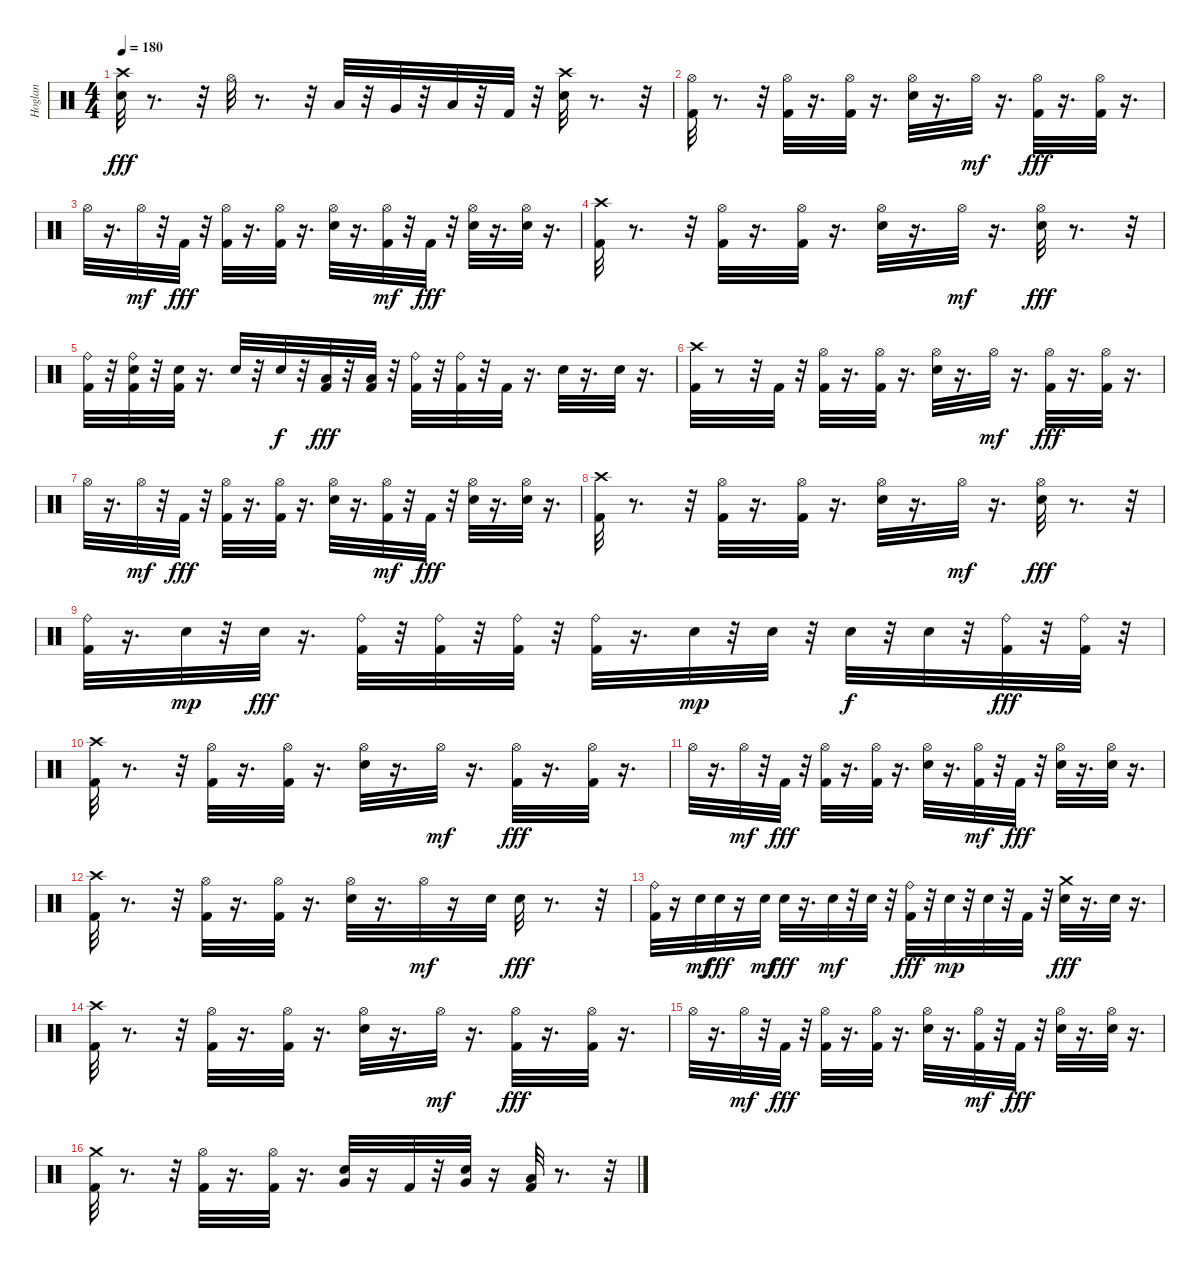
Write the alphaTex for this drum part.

\track ("Hoglan" "Hoglan") {instrument percussion}
\staff {score}
\articulation defaults
\ts (4 4)
\tempo 180
\clef neutral
\ks c
("Crash high (hit)" "Electric Snare (hit)").32{dy fff} r.8{d} r.32 "Hi-Hat (open)".32 r.8{d} r.32 "Low Tom (hit)".32 r.32 "Very Low Tom (hit)".32 r.32 "Low Floor Tom (hit)".32 r.32 "Kick (hit) 2".32 r.32 ("Crash high (hit)" "Electric Snare (hit)").32 r.8{d} r.32 |
("Hi-Hat (open)" "Kick (hit) 2").32 r.8{d} r.32 ("Hi-Hat (open)" "Kick (hit) 2").32 r.16{d} ("Hi-Hat (open)" "Kick (hit) 2").32 r.16{d} ("Hi-Hat (open)" "Electric Snare (hit)").32 r.16{d} "Hi-Hat (open)".32{dy mf} r.16{d} ("Hi-Hat (open)" "Kick (hit) 2").32{dy fff} r.16{d} ("Hi-Hat (open)" "Kick (hit) 2").32 r.16{d} |
"Hi-Hat (open)".32 r.16{d} "Hi-Hat (open)".32{dy mf} r.32 "Kick (hit) 2".32{dy fff} r.32 ("Hi-Hat (open)" "Kick (hit) 2").32 r.16{d} ("Hi-Hat (open)" "Kick (hit) 2").32 r.16{d} ("Hi-Hat (open)" "Electric Snare (hit)").32 r.16{d} ("Hi-Hat (open)" "Kick (hit) 2").32{dy mf} r.32 "Kick (hit) 2".32{dy fff} r.32 ("Hi-Hat (open)" "Electric Snare (hit)").32 r.16{d} ("Hi-Hat (open)" "Electric Snare (hit)").32 r.16{d} |
("Crash high (hit)" "Kick (hit) 2").32 r.8{d} r.32 ("Hi-Hat (open)" "Kick (hit) 2").32 r.16{d} ("Hi-Hat (open)" "Kick (hit) 2").32 r.16{d} ("Hi-Hat (open)" "Electric Snare (hit)").32 r.16{d} "Hi-Hat (open)".32{dy mf} r.16{d} ("Hi-Hat (open)" "Electric Snare (hit)").32{dy fff} r.8{d} r.32 |
("Ride (bell)" "Kick (hit) 2").32 r.32 ("Ride (bell)" "Electric Snare (hit)" "Kick (hit) 2").32 r.32 ("Electric Snare (hit)" "Kick (hit) 2").32 r.16{d} "Electric Snare (hit)".32 r.32 "Electric Snare (hit)".32{dy f} r.32 ("Low Floor Tom (hit)" "Kick (hit) 2").32{dy fff} r.32 ("Low Floor Tom (hit)" "Kick (hit) 2").32 r.32 ("Ride (bell)" "Kick (hit) 2").32 r.32 ("Ride (bell)" "Kick (hit) 2").32 r.32 "Kick (hit) 2".32 r.16{d} "Electric Snare (hit)".32 r.16{d} "Electric Snare (hit)".32 r.16{d} |
("Crash high (hit)" "Kick (hit) 2").32 r.8 r.32 "Kick (hit) 2".32 r.32 ("Hi-Hat (open)" "Kick (hit) 2").32 r.16{d} ("Hi-Hat (open)" "Kick (hit) 2").32 r.16{d} ("Hi-Hat (open)" "Electric Snare (hit)").32 r.16{d} "Hi-Hat (open)".32{dy mf} r.16{d} ("Hi-Hat (open)" "Kick (hit) 2").32{dy fff} r.16{d} ("Hi-Hat (open)" "Kick (hit) 2").32 r.16{d} |
"Hi-Hat (open)".32 r.16{d} "Hi-Hat (open)".32{dy mf} r.32 "Kick (hit) 2".32{dy fff} r.32 ("Hi-Hat (open)" "Kick (hit) 2").32 r.16{d} ("Hi-Hat (open)" "Kick (hit) 2").32 r.16{d} ("Hi-Hat (open)" "Electric Snare (hit)").32 r.16{d} ("Hi-Hat (open)" "Kick (hit) 2").32{dy mf} r.32 "Kick (hit) 2".32{dy fff} r.32 ("Hi-Hat (open)" "Electric Snare (hit)").32 r.16{d} ("Hi-Hat (open)" "Electric Snare (hit)").32 r.16{d} |
("Crash high (hit)" "Kick (hit) 2").32 r.8{d} r.32 ("Hi-Hat (open)" "Kick (hit) 2").32 r.16{d} ("Hi-Hat (open)" "Kick (hit) 2").32 r.16{d} ("Hi-Hat (open)" "Electric Snare (hit)").32 r.16{d} "Hi-Hat (open)".32{dy mf} r.16{d} ("Hi-Hat (open)" "Electric Snare (hit)").32{dy fff} r.8{d} r.32 |
("Ride (bell)" "Kick (hit) 2").32 r.16{d} "Electric Snare (hit)".32{dy mp} r.32 "Electric Snare (hit)".32{dy fff} r.16{d} ("Ride (bell)" "Kick (hit) 2").32 r.32 ("Ride (bell)" "Kick (hit) 2").32 r.32 ("Ride (bell)" "Kick (hit) 2").32 r.32 ("Ride (bell)" "Kick (hit) 2").32 r.16{d} "Electric Snare (hit)".32{dy mp} r.32 "Electric Snare (hit)".32 r.32 "Electric Snare (hit)".32{dy f} r.32 "Electric Snare (hit)".32 r.32 ("Ride (bell)" "Kick (hit) 2").32{dy fff} r.32 ("Ride (bell)" "Kick (hit) 2").32 r.32 |
("Crash high (hit)" "Kick (hit) 2").32 r.8{d} r.32 ("Hi-Hat (open)" "Kick (hit) 2").32 r.16{d} ("Hi-Hat (open)" "Kick (hit) 2").32 r.16{d} ("Hi-Hat (open)" "Electric Snare (hit)").32 r.16{d} "Hi-Hat (open)".32{dy mf} r.16{d} ("Hi-Hat (open)" "Kick (hit) 2").32{dy fff} r.16{d} ("Hi-Hat (open)" "Kick (hit) 2").32 r.16{d} |
"Hi-Hat (open)".32 r.16{d} "Hi-Hat (open)".32{dy mf} r.32 "Kick (hit) 2".32{dy fff} r.32 ("Hi-Hat (open)" "Kick (hit) 2").32 r.16{d} ("Hi-Hat (open)" "Kick (hit) 2").32 r.16{d} ("Hi-Hat (open)" "Electric Snare (hit)").32 r.16{d} ("Hi-Hat (open)" "Kick (hit) 2").32{dy mf} r.32 "Kick (hit) 2".32{dy fff} r.32 ("Hi-Hat (open)" "Electric Snare (hit)").32 r.16{d} ("Hi-Hat (open)" "Electric Snare (hit)").32 r.16{d} |
("Crash high (hit)" "Kick (hit) 2").32 r.8{d} r.32 ("Hi-Hat (open)" "Kick (hit) 2").32 r.16{d} ("Hi-Hat (open)" "Kick (hit) 2").32 r.16{d} ("Hi-Hat (open)" "Electric Snare (hit)").32 r.16{d} "Hi-Hat (open)".32{dy mf} r.16 "Electric Snare (hit)".32 "Electric Snare (hit)".32{dy fff} r.8{d} r.32 |
("Ride (bell)" "Kick (hit) 2").32 r.16 "Electric Snare (hit)".32{dy mf} "Electric Snare (hit)".32{dy fff} r.16 "Electric Snare (hit)".32{dy mf} "Electric Snare (hit)".32{dy fff} r.16{d} "Electric Snare (hit)".32{dy mf} r.32 "Electric Snare (hit)".32 r.32 ("Ride (bell)" "Kick (hit) 2").32{dy fff} r.32 "Electric Snare (hit)".32{dy mp} r.32 "Electric Snare (hit)".32 r.32 "Kick (hit) 2".32 r.32 ("Crash medium (hit)" "Electric Snare (hit)").32{dy fff} r.16{d} "Electric Snare (hit)".32 r.16{d} |
("Crash high (hit)" "Kick (hit) 2").32 r.8{d} r.32 ("Hi-Hat (open)" "Kick (hit) 2").32 r.16{d} ("Hi-Hat (open)" "Kick (hit) 2").32 r.16{d} ("Hi-Hat (open)" "Electric Snare (hit)").32 r.16{d} "Hi-Hat (open)".32{dy mf} r.16{d} ("Hi-Hat (open)" "Kick (hit) 2").32{dy fff} r.16{d} ("Hi-Hat (open)" "Kick (hit) 2").32 r.16{d} |
"Hi-Hat (open)".32 r.16{d} "Hi-Hat (open)".32{dy mf} r.32 "Kick (hit) 2".32{dy fff} r.32 ("Hi-Hat (open)" "Kick (hit) 2").32 r.16{d} ("Hi-Hat (open)" "Kick (hit) 2").32 r.16{d} ("Hi-Hat (open)" "Electric Snare (hit)").32 r.16{d} ("Hi-Hat (open)" "Kick (hit) 2").32{dy mf} r.32 "Kick (hit) 2".32{dy fff} r.32 ("Hi-Hat (open)" "Electric Snare (hit)").32 r.16{d} ("Hi-Hat (open)" "Electric Snare (hit)").32 r.16{d} |
("Crash medium (hit)" "Kick (hit) 2").32 r.8{d} r.32 ("Hi-Hat (open)" "Kick (hit) 2").32 r.16{d} ("Hi-Hat (open)" "Kick (hit) 2").32 r.16{d} ("Electric Snare (hit)" "Very Low Tom (hit)").32 r.16 "Kick (hit) 2".32 r.32 ("Electric Snare (hit)" "Very Low Tom (hit)").32 r.16 ("Low Floor Tom (hit)" "Kick (hit) 2").32 r.8{d} r.32
